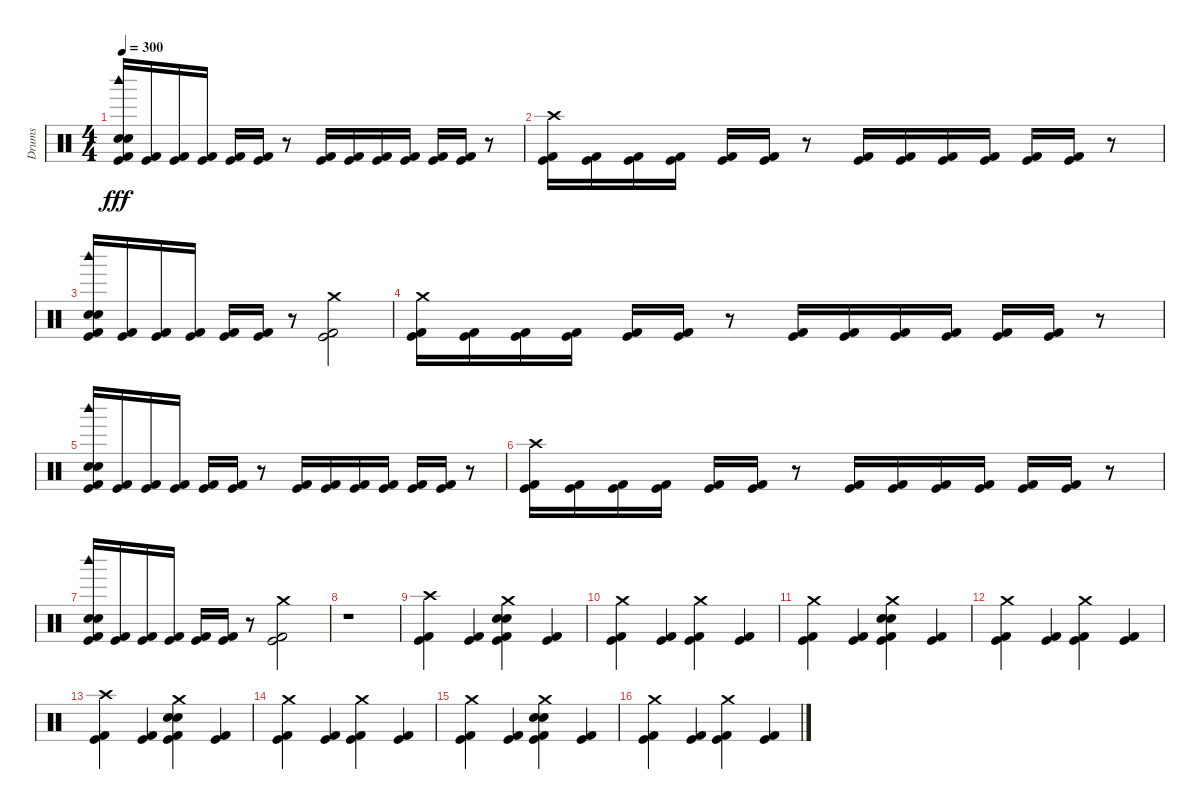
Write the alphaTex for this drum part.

\track ("Drums" "Drums") {instrument percussion}
\staff {score}
\articulation defaults
\ts (4 4)
\tempo 300
\clef neutral
\ks c
("Kick (hit)" "Electric Snare (hit)" "Snare (hit) 2" "Woodblock high (hit)" "Kick (hit) 2").16{dy fff} ("Kick (hit)" "Kick (hit) 2").16 ("Kick (hit)" "Kick (hit) 2").16 ("Kick (hit)" "Kick (hit) 2").16 ("Kick (hit)" "Kick (hit) 2").16 ("Kick (hit)" "Kick (hit) 2").16 r.8 ("Kick (hit)" "Kick (hit) 2").16 ("Kick (hit)" "Kick (hit) 2").16 ("Kick (hit)" "Kick (hit) 2").16 ("Kick (hit)" "Kick (hit) 2").16 ("Kick (hit)" "Kick (hit) 2").16 ("Kick (hit)" "Kick (hit) 2").16 r.8 |
("Kick (hit)" "Crash high (hit)" "Kick (hit) 2").16 ("Kick (hit)" "Kick (hit) 2").16 ("Kick (hit)" "Kick (hit) 2").16 ("Kick (hit)" "Kick (hit) 2").16 ("Kick (hit)" "Kick (hit) 2").16 ("Kick (hit)" "Kick (hit) 2").16 r.8 ("Kick (hit)" "Kick (hit) 2").16 ("Kick (hit)" "Kick (hit) 2").16 ("Kick (hit)" "Kick (hit) 2").16 ("Kick (hit)" "Kick (hit) 2").16 ("Kick (hit)" "Kick (hit) 2").16 ("Kick (hit)" "Kick (hit) 2").16 r.8 |
("Kick (hit)" "Electric Snare (hit)" "Snare (hit) 2" "Woodblock high (hit)" "Kick (hit) 2").16 ("Kick (hit)" "Kick (hit) 2").16 ("Kick (hit)" "Kick (hit) 2").16 ("Kick (hit)" "Kick (hit) 2").16 ("Kick (hit)" "Kick (hit) 2").16 ("Kick (hit)" "Kick (hit) 2").16 r.8 ("Kick (hit) 2" "Crash medium (hit)" "Kick (hit)").2 |
("Kick (hit) 2" "Crash medium (hit)" "Kick (hit)").16 ("Kick (hit) 2" "Kick (hit)").16 ("Kick (hit) 2" "Kick (hit)").16 ("Kick (hit) 2" "Kick (hit)").16 ("Kick (hit) 2" "Kick (hit)").16 ("Kick (hit) 2" "Kick (hit)").16 r.8 ("Kick (hit)" "Kick (hit) 2").16 ("Kick (hit)" "Kick (hit) 2").16 ("Kick (hit)" "Kick (hit) 2").16 ("Kick (hit)" "Kick (hit) 2").16 ("Kick (hit)" "Kick (hit) 2").16 ("Kick (hit)" "Kick (hit) 2").16 r.8 |
("Kick (hit)" "Electric Snare (hit)" "Snare (hit) 2" "Woodblock high (hit)" "Kick (hit) 2").16 ("Kick (hit)" "Kick (hit) 2").16 ("Kick (hit)" "Kick (hit) 2").16 ("Kick (hit)" "Kick (hit) 2").16 ("Kick (hit)" "Kick (hit) 2").16 ("Kick (hit)" "Kick (hit) 2").16 r.8 ("Kick (hit)" "Kick (hit) 2").16 ("Kick (hit)" "Kick (hit) 2").16 ("Kick (hit)" "Kick (hit) 2").16 ("Kick (hit)" "Kick (hit) 2").16 ("Kick (hit)" "Kick (hit) 2").16 ("Kick (hit)" "Kick (hit) 2").16 r.8 |
("Kick (hit)" "Crash high (hit)" "Kick (hit) 2").16 ("Kick (hit)" "Kick (hit) 2").16 ("Kick (hit)" "Kick (hit) 2").16 ("Kick (hit)" "Kick (hit) 2").16 ("Kick (hit)" "Kick (hit) 2").16 ("Kick (hit)" "Kick (hit) 2").16 r.8 ("Kick (hit)" "Kick (hit) 2").16 ("Kick (hit)" "Kick (hit) 2").16 ("Kick (hit)" "Kick (hit) 2").16 ("Kick (hit)" "Kick (hit) 2").16 ("Kick (hit)" "Kick (hit) 2").16 ("Kick (hit)" "Kick (hit) 2").16 r.8 |
("Kick (hit)" "Electric Snare (hit)" "Snare (hit) 2" "Woodblock high (hit)" "Kick (hit) 2").16 ("Kick (hit)" "Kick (hit) 2").16 ("Kick (hit)" "Kick (hit) 2").16 ("Kick (hit)" "Kick (hit) 2").16 ("Kick (hit)" "Kick (hit) 2").16 ("Kick (hit)" "Kick (hit) 2").16 r.8 ("Kick (hit) 2" "Crash medium (hit)" "Kick (hit)").2 |
r.1 |
("Kick (hit) 2" "Crash high (hit)" "Kick (hit)").4 ("Kick (hit) 2" "Kick (hit)").4 ("Kick (hit) 2" "Crash medium (hit)" "Electric Snare (hit)" "Snare (hit) 2" "Kick (hit)").4 ("Kick (hit) 2" "Kick (hit)").4 |
("Kick (hit) 2" "Kick (hit)" "Crash medium (hit)").4 ("Kick (hit) 2" "Kick (hit)").4 ("Kick (hit) 2" "Kick (hit)" "Crash medium (hit)").4 ("Kick (hit) 2" "Kick (hit)").4 |
("Kick (hit) 2" "Crash medium (hit)" "Kick (hit)").4 ("Kick (hit) 2" "Kick (hit)").4 ("Kick (hit) 2" "Electric Snare (hit)" "Snare (hit) 2" "Crash medium (hit)" "Kick (hit)").4 ("Kick (hit) 2" "Kick (hit)").4 |
("Kick (hit) 2" "Kick (hit)" "Crash medium (hit)").4 ("Kick (hit) 2" "Kick (hit)").4 ("Kick (hit) 2" "Kick (hit)" "Crash medium (hit)").4 ("Kick (hit) 2" "Kick (hit)").4 |
("Kick (hit) 2" "Crash high (hit)" "Kick (hit)").4 ("Kick (hit) 2" "Kick (hit)").4 ("Kick (hit) 2" "Electric Snare (hit)" "Crash medium (hit)" "Snare (hit) 2" "Kick (hit)").4 ("Kick (hit) 2" "Kick (hit)").4 |
("Kick (hit) 2" "Crash medium (hit)" "Kick (hit)").4 ("Kick (hit) 2" "Kick (hit)").4 ("Kick (hit) 2" "Crash medium (hit)" "Kick (hit)").4 ("Kick (hit) 2" "Kick (hit)").4 |
("Kick (hit) 2" "Kick (hit)" "Crash medium (hit)").4 ("Kick (hit) 2" "Kick (hit)").4 ("Kick (hit) 2" "Snare (hit) 2" "Electric Snare (hit)" "Crash medium (hit)" "Kick (hit)").4 ("Kick (hit) 2" "Kick (hit)").4 |
("Kick (hit) 2" "Crash medium (hit)" "Kick (hit)").4 ("Kick (hit) 2" "Kick (hit)").4 ("Kick (hit) 2" "Kick (hit)" "Crash medium (hit)").4 ("Kick (hit) 2" "Kick (hit)").4
